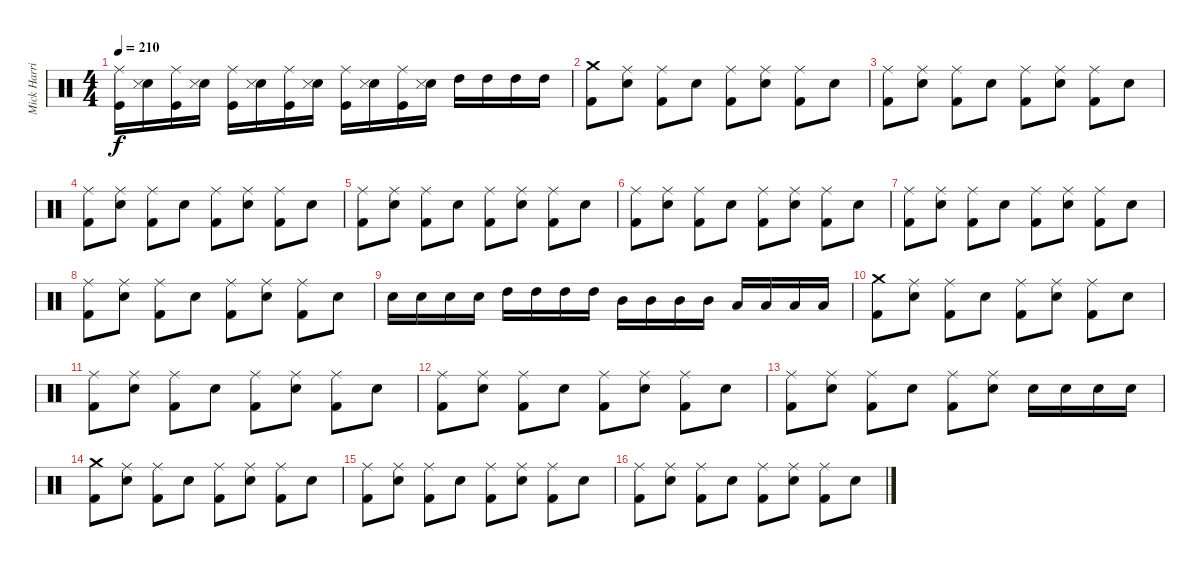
\track ("Mick Harris (Drums)" "Mick Harri") {instrument percussion}
\staff {score}
\articulation defaults
\ts (4 4)
\tempo 210
\clef neutral
\ks c
("Kick (hit)" "Ride (middle)").16{dy f} ("Electric Snare (hit)" "Snare (side stick) 3").16 ("Kick (hit)" "Ride (middle)").16 ("Electric Snare (hit)" "Snare (side stick) 3").16 ("Kick (hit)" "Ride (middle)").16 ("Electric Snare (hit)" "Snare (side stick) 3").16 ("Kick (hit)" "Ride (middle)").16 ("Electric Snare (hit)" "Snare (side stick) 3").16 ("Kick (hit)" "Ride (middle)").16 ("Electric Snare (hit)" "Snare (side stick) 3").16 ("Kick (hit)" "Ride (middle)").16 ("Electric Snare (hit)" "Snare (side stick) 3").16 "High Tom (hit)".16 "High Tom (hit)".16 "High Tom (hit)".16 "High Tom (hit)".16 |
("Kick (hit) 2" "Crash medium (hit)").8 ("Electric Snare (hit)" "Ride (middle)").8 ("Kick (hit) 2" "Ride (middle)").8 "Electric Snare (hit)".8 ("Kick (hit) 2" "Ride (middle)").8 ("Electric Snare (hit)" "Ride (middle)").8 ("Kick (hit) 2" "Ride (middle)").8 "Electric Snare (hit)".8 |
("Kick (hit) 2" "Ride (middle)").8 ("Electric Snare (hit)" "Ride (middle)").8 ("Kick (hit) 2" "Ride (middle)").8 "Electric Snare (hit)".8 ("Kick (hit) 2" "Ride (middle)").8 ("Electric Snare (hit)" "Ride (middle)").8 ("Kick (hit) 2" "Ride (middle)").8 "Electric Snare (hit)".8 |
("Kick (hit) 2" "Ride (middle)").8 ("Electric Snare (hit)" "Ride (middle)").8 ("Kick (hit) 2" "Ride (middle)").8 "Electric Snare (hit)".8 ("Kick (hit) 2" "Ride (middle)").8 ("Electric Snare (hit)" "Ride (middle)").8 ("Kick (hit) 2" "Ride (middle)").8 "Electric Snare (hit)".8 |
("Kick (hit) 2" "Ride (middle)").8 ("Electric Snare (hit)" "Ride (middle)").8 ("Kick (hit) 2" "Ride (middle)").8 "Electric Snare (hit)".8 ("Kick (hit) 2" "Ride (middle)").8 ("Electric Snare (hit)" "Ride (middle)").8 ("Kick (hit) 2" "Ride (middle)").8 "Electric Snare (hit)".8 |
("Kick (hit) 2" "Ride (middle)").8 ("Electric Snare (hit)" "Ride (middle)").8 ("Kick (hit) 2" "Ride (middle)").8 "Electric Snare (hit)".8 ("Kick (hit) 2" "Ride (middle)").8 ("Electric Snare (hit)" "Ride (middle)").8 ("Kick (hit) 2" "Ride (middle)").8 "Electric Snare (hit)".8 |
("Kick (hit) 2" "Ride (middle)").8 ("Electric Snare (hit)" "Ride (middle)").8 ("Kick (hit) 2" "Ride (middle)").8 "Electric Snare (hit)".8 ("Kick (hit) 2" "Ride (middle)").8 ("Electric Snare (hit)" "Ride (middle)").8 ("Kick (hit) 2" "Ride (middle)").8 "Electric Snare (hit)".8 |
("Kick (hit) 2" "Ride (middle)").8 ("Electric Snare (hit)" "Ride (middle)").8 ("Kick (hit) 2" "Ride (middle)").8 "Electric Snare (hit)".8 ("Kick (hit) 2" "Ride (middle)").8 ("Electric Snare (hit)" "Ride (middle)").8 ("Kick (hit) 2" "Ride (middle)").8 "Electric Snare (hit)".8 |
"Electric Snare (hit)".16 "Electric Snare (hit)".16 "Electric Snare (hit)".16 "Electric Snare (hit)".16 "High Tom (hit)".16 "High Tom (hit)".16 "High Tom (hit)".16 "High Tom (hit)".16 "Mid Tom (hit)".16 "Mid Tom (hit)".16 "Mid Tom (hit)".16 "Mid Tom (hit)".16 "Low Tom (hit)".16 "Low Tom (hit)".16 "Low Tom (hit)".16 "Low Tom (hit)".16 |
("Kick (hit) 2" "Crash medium (hit)").8 ("Electric Snare (hit)" "Ride (middle)").8 ("Kick (hit) 2" "Ride (middle)").8 "Electric Snare (hit)".8 ("Kick (hit) 2" "Ride (middle)").8 ("Electric Snare (hit)" "Ride (middle)").8 ("Kick (hit) 2" "Ride (middle)").8 "Electric Snare (hit)".8 |
("Kick (hit) 2" "Ride (middle)").8 ("Electric Snare (hit)" "Ride (middle)").8 ("Kick (hit) 2" "Ride (middle)").8 "Electric Snare (hit)".8 ("Kick (hit) 2" "Ride (middle)").8 ("Electric Snare (hit)" "Ride (middle)").8 ("Kick (hit) 2" "Ride (middle)").8 "Electric Snare (hit)".8 |
("Kick (hit) 2" "Ride (middle)").8 ("Electric Snare (hit)" "Ride (middle)").8 ("Kick (hit) 2" "Ride (middle)").8 "Electric Snare (hit)".8 ("Kick (hit) 2" "Ride (middle)").8 ("Electric Snare (hit)" "Ride (middle)").8 ("Kick (hit) 2" "Ride (middle)").8 "Electric Snare (hit)".8 |
("Kick (hit) 2" "Ride (middle)").8 ("Electric Snare (hit)" "Ride (middle)").8 ("Kick (hit) 2" "Ride (middle)").8 "Electric Snare (hit)".8 ("Kick (hit) 2" "Ride (middle)").8 ("Electric Snare (hit)" "Ride (middle)").8 "Electric Snare (hit)".16 "Electric Snare (hit)".16 "Electric Snare (hit)".16 "Electric Snare (hit)".16 |
("Kick (hit) 2" "Crash medium (hit)").8 ("Electric Snare (hit)" "Ride (middle)").8 ("Kick (hit) 2" "Ride (middle)").8 "Electric Snare (hit)".8 ("Kick (hit) 2" "Ride (middle)").8 ("Electric Snare (hit)" "Ride (middle)").8 ("Kick (hit) 2" "Ride (middle)").8 "Electric Snare (hit)".8 |
("Kick (hit) 2" "Ride (middle)").8 ("Electric Snare (hit)" "Ride (middle)").8 ("Kick (hit) 2" "Ride (middle)").8 "Electric Snare (hit)".8 ("Kick (hit) 2" "Ride (middle)").8 ("Electric Snare (hit)" "Ride (middle)").8 ("Kick (hit) 2" "Ride (middle)").8 "Electric Snare (hit)".8 |
("Kick (hit) 2" "Ride (middle)").8 ("Electric Snare (hit)" "Ride (middle)").8 ("Kick (hit) 2" "Ride (middle)").8 "Electric Snare (hit)".8 ("Kick (hit) 2" "Ride (middle)").8 ("Electric Snare (hit)" "Ride (middle)").8 ("Kick (hit) 2" "Ride (middle)").8 "Electric Snare (hit)".8
